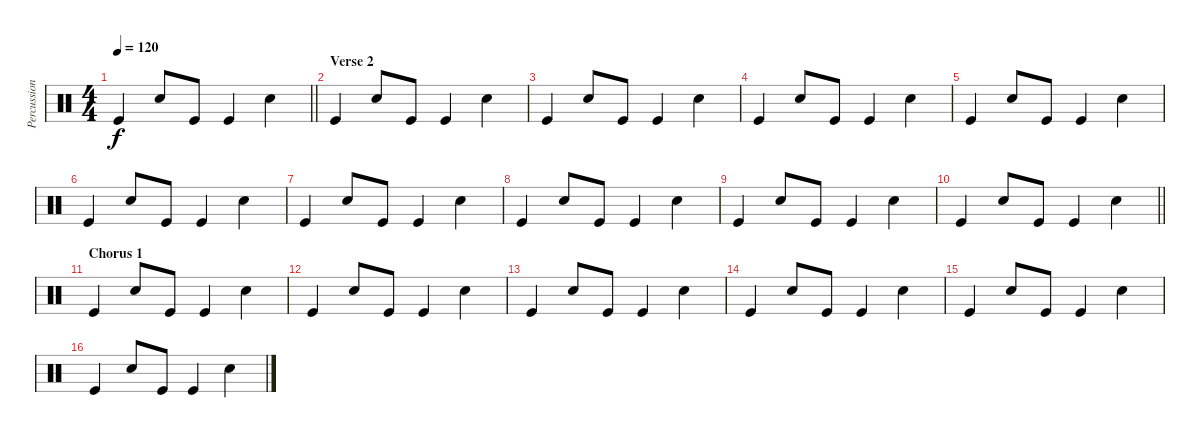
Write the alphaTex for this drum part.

\track ("Percussion" "Percussion") {instrument percussion}
\staff {score}
\articulation defaults
\ts (4 4)
\tempo 120
\clef neutral
\barLineRight lightlight
\ks c "Kick (hit)".4{dy f} "Electric Snare (hit)".8 "Kick (hit)".8 "Kick (hit)".4 "Electric Snare (hit)".4
|
\section ("" "Verse 2")
"Kick (hit)".4 "Electric Snare (hit)".8 "Kick (hit)".8 "Kick (hit)".4 "Electric Snare (hit)".4 |
"Kick (hit)".4 "Electric Snare (hit)".8 "Kick (hit)".8 "Kick (hit)".4 "Electric Snare (hit)".4 |
"Kick (hit)".4 "Electric Snare (hit)".8 "Kick (hit)".8 "Kick (hit)".4 "Electric Snare (hit)".4 |
"Kick (hit)".4 "Electric Snare (hit)".8 "Kick (hit)".8 "Kick (hit)".4 "Electric Snare (hit)".4 |
"Kick (hit)".4 "Electric Snare (hit)".8 "Kick (hit)".8 "Kick (hit)".4 "Electric Snare (hit)".4 |
"Kick (hit)".4 "Electric Snare (hit)".8 "Kick (hit)".8 "Kick (hit)".4 "Electric Snare (hit)".4 |
"Kick (hit)".4 "Electric Snare (hit)".8 "Kick (hit)".8 "Kick (hit)".4 "Electric Snare (hit)".4 |
"Kick (hit)".4 "Electric Snare (hit)".8 "Kick (hit)".8 "Kick (hit)".4 "Electric Snare (hit)".4 |
\barLineRight lightlight "Kick (hit)".4 "Electric Snare (hit)".8 "Kick (hit)".8 "Kick (hit)".4 "Electric Snare (hit)".4
|
\section ("" "Chorus 1")
"Kick (hit)".4 "Electric Snare (hit)".8 "Kick (hit)".8 "Kick (hit)".4 "Electric Snare (hit)".4 |
"Kick (hit)".4 "Electric Snare (hit)".8 "Kick (hit)".8 "Kick (hit)".4 "Electric Snare (hit)".4 |
"Kick (hit)".4 "Electric Snare (hit)".8 "Kick (hit)".8 "Kick (hit)".4 "Electric Snare (hit)".4 |
"Kick (hit)".4 "Electric Snare (hit)".8 "Kick (hit)".8 "Kick (hit)".4 "Electric Snare (hit)".4 |
"Kick (hit)".4 "Electric Snare (hit)".8 "Kick (hit)".8 "Kick (hit)".4 "Electric Snare (hit)".4 |
"Kick (hit)".4 "Electric Snare (hit)".8 "Kick (hit)".8 "Kick (hit)".4 "Electric Snare (hit)".4
